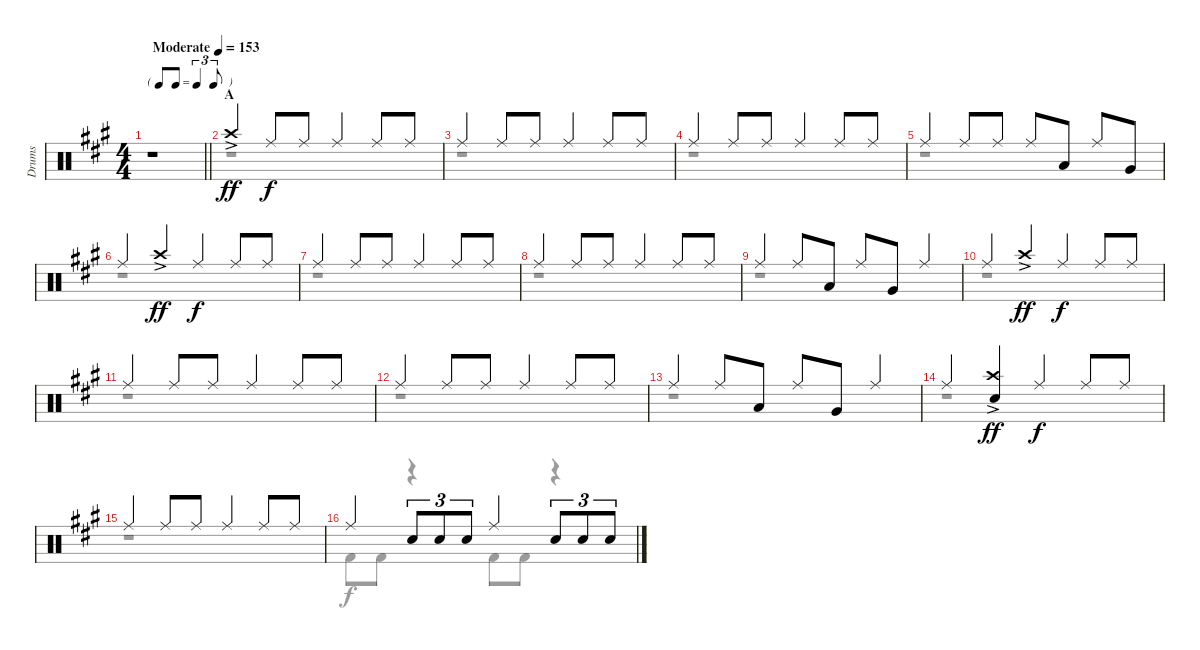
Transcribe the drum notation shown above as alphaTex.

\track ("Drums" "Drums") {instrument percussion}
\staff {score}
\articulation defaults
\voice
\ts (4 4)
\tf triplet8th
\tempo (153 "Moderate")
\clef neutral
\barLineRight lightlight
\ks a
r.1{dy ff} |
\section ("" "A")
"Crash high (hit)"{ac}.4 "Ride (middle)".8{dy f} "Ride (middle)".8 "Ride (middle)".4 "Ride (middle)".8 "Ride (middle)".8 |
"Ride (middle)".4 "Ride (middle)".8 "Ride (middle)".8 "Ride (middle)".4 "Ride (middle)".8 "Ride (middle)".8 |
"Ride (middle)".4 "Ride (middle)".8 "Ride (middle)".8 "Ride (middle)".4 "Ride (middle)".8 "Ride (middle)".8 |
"Ride (middle)".4 "Ride (middle)".8 "Ride (middle)".8 "Ride (middle)".8 "Low Tom (hit)".8 "Ride (middle)".8 "Very Low Tom (hit)".8 |
"Ride (middle)".4 "Crash high (hit)"{ac}.4{dy ff} "Ride (middle)".4{dy f} "Ride (middle)".8 "Ride (middle)".8 |
"Ride (middle)".4 "Ride (middle)".8 "Ride (middle)".8 "Ride (middle)".4 "Ride (middle)".8 "Ride (middle)".8 |
"Ride (middle)".4 "Ride (middle)".8 "Ride (middle)".8 "Ride (middle)".4 "Ride (middle)".8 "Ride (middle)".8 |
"Ride (middle)".4 "Ride (middle)".8 "Low Tom (hit)".8 "Ride (middle)".8 "Very Low Tom (hit)".8 "Ride (middle)".4 |
"Ride (middle)".4 "Crash high (hit)"{ac}.4{dy ff} "Ride (middle)".4{dy f} "Ride (middle)".8 "Ride (middle)".8 |
"Ride (middle)".4 "Ride (middle)".8 "Ride (middle)".8 "Ride (middle)".4 "Ride (middle)".8 "Ride (middle)".8 |
"Ride (middle)".4 "Ride (middle)".8 "Ride (middle)".8 "Ride (middle)".4 "Ride (middle)".8 "Ride (middle)".8 |
"Ride (middle)".4 "Ride (middle)".8 "Low Tom (hit)".8 "Ride (middle)".8 "Very Low Tom (hit)".8 "Ride (middle)".4 |
"Ride (middle)".4 ("Crash high (hit)"{ac} "Snare (hit) 2").4{dy ff} "Ride (middle)".4{dy f} "Ride (middle)".8 "Ride (middle)".8 |
"Ride (middle)".4 "Ride (middle)".8 "Ride (middle)".8 "Ride (middle)".4 "Ride (middle)".8 "Ride (middle)".8 |
"Ride (middle)".4 "Snare (hit) 2".8{tu (3 2)} "Snare (hit) 2".8{tu (3 2)} "Snare (hit) 2".8{tu (3 2)} "Ride (middle)".4 "Snare (hit) 2".8{tu (3 2)} "Snare (hit) 2".8{tu (3 2)} "Snare (hit) 2".8{tu (3 2)}
\voice
\clef neutral
\ottava regular
\simile none
\barLineRight lightlight
\ks a
|
r.1 |
r.1 |
r.1 |
r.1 |
r.1 |
r.1 |
r.1 |
r.1 |
r.1 |
r.1 |
r.1 |
r.1 |
r.1 |
r.1 |
"Kick (hit) 2".8 "Kick (hit) 2".8 r.4 "Kick (hit) 2".8 "Kick (hit) 2".8 r.4
